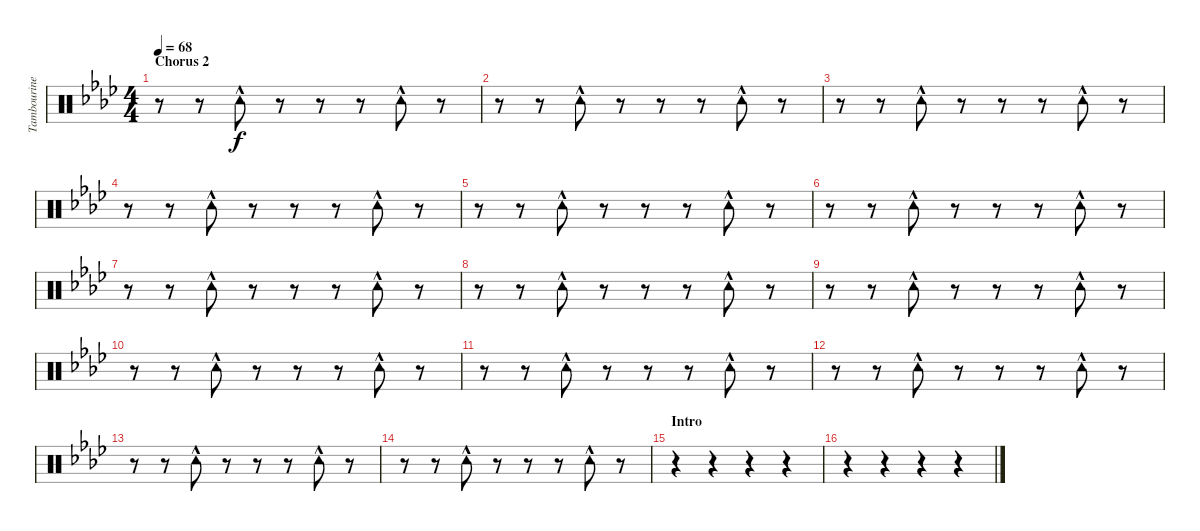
\track ("Tambourine" "Tambourine") {instrument percussion}
\staff {score}
\articulation defaults
\ts (4 4)
\section ("" "Chorus 2")
\tempo 68
\clef neutral
\ks ab
r.8{dy f} r.8 "Tambourine (hit)"{hac}.8 r.8 r.8 r.8 "Tambourine (hit)"{hac}.8 r.8 |
r.8 r.8 "Tambourine (hit)"{hac}.8 r.8 r.8 r.8 "Tambourine (hit)"{hac}.8 r.8 |
r.8 r.8 "Tambourine (hit)"{hac}.8 r.8 r.8 r.8 "Tambourine (hit)"{hac}.8 r.8 |
r.8 r.8 "Tambourine (hit)"{hac}.8 r.8 r.8 r.8 "Tambourine (hit)"{hac}.8 r.8 |
r.8 r.8 "Tambourine (hit)"{hac}.8 r.8 r.8 r.8 "Tambourine (hit)"{hac}.8 r.8 |
r.8 r.8 "Tambourine (hit)"{hac}.8 r.8 r.8 r.8 "Tambourine (hit)"{hac}.8 r.8 |
r.8 r.8 "Tambourine (hit)"{hac}.8 r.8 r.8 r.8 "Tambourine (hit)"{hac}.8 r.8 |
r.8 r.8 "Tambourine (hit)"{hac}.8 r.8 r.8 r.8 "Tambourine (hit)"{hac}.8 r.8 |
r.8 r.8 "Tambourine (hit)"{hac}.8 r.8 r.8 r.8 "Tambourine (hit)"{hac}.8 r.8 |
r.8 r.8 "Tambourine (hit)"{hac}.8 r.8 r.8 r.8 "Tambourine (hit)"{hac}.8 r.8 |
r.8 r.8 "Tambourine (hit)"{hac}.8 r.8 r.8 r.8 "Tambourine (hit)"{hac}.8 r.8 |
r.8 r.8 "Tambourine (hit)"{hac}.8 r.8 r.8 r.8 "Tambourine (hit)"{hac}.8 r.8 |
r.8 r.8 "Tambourine (hit)"{hac}.8 r.8 r.8 r.8 "Tambourine (hit)"{hac}.8 r.8 |
r.8 r.8 "Tambourine (hit)"{hac}.8 r.8 r.8 r.8 "Tambourine (hit)"{hac}.8 r.8 |
\section ("" "Intro")
r.4 r.4 r.4 r.4 |
r.4 r.4 r.4 r.4
